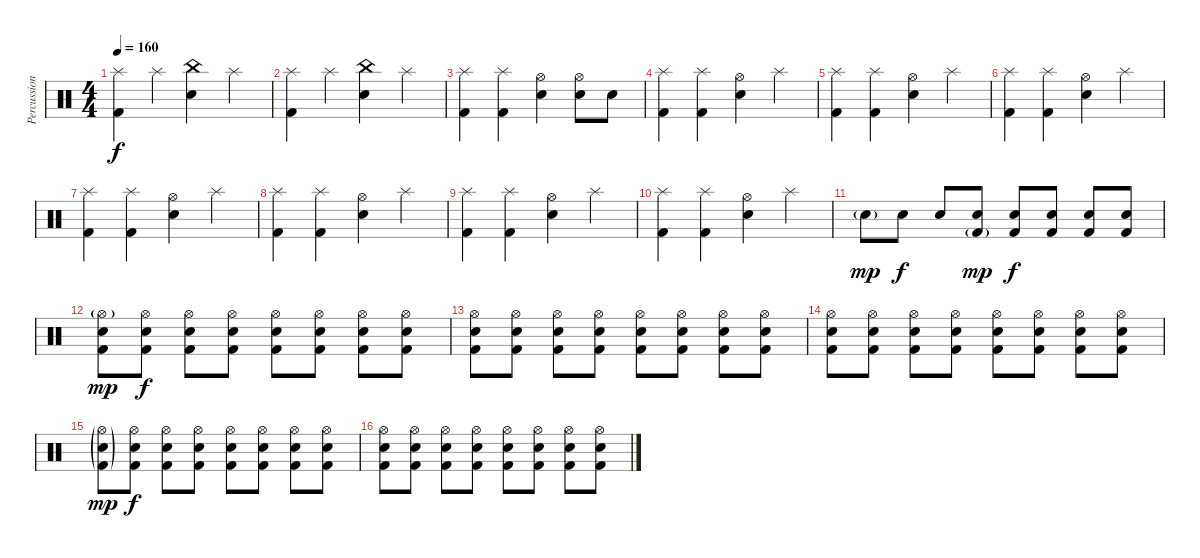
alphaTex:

\track ("Percussion" "Percussion") {instrument percussion}
\staff {score}
\articulation defaults
\ts (4 4)
\tempo 160
\clef neutral
\ks c
("Splash (hit)" "Kick (hit) 2").4{dy f} "Splash (hit)".4 ("China (hit)" "Electric Snare (hit)").4 "Splash (hit)".4 |
("Splash (hit)" "Kick (hit) 2").4 "Splash (hit)".4 ("China (hit)" "Electric Snare (hit)").4 "Splash (hit)".4 |
("Splash (hit)" "Kick (hit) 2").4 ("Splash (hit)" "Kick (hit) 2").4 ("Hi-Hat (open)" "Electric Snare (hit)").4 ("Hi-Hat (open)" "Electric Snare (hit)").8 "Electric Snare (hit)".8 |
("Splash (hit)" "Kick (hit) 2").4 ("Splash (hit)" "Kick (hit) 2").4 ("Hi-Hat (open)" "Electric Snare (hit)").4 "Splash (hit)".4 |
("Splash (hit)" "Kick (hit) 2").4 ("Splash (hit)" "Kick (hit) 2").4 ("Hi-Hat (open)" "Electric Snare (hit)").4 "Splash (hit)".4 |
("Splash (hit)" "Kick (hit) 2").4 ("Splash (hit)" "Kick (hit) 2").4 ("Hi-Hat (open)" "Electric Snare (hit)").4 "Splash (hit)".4 |
("Splash (hit)" "Kick (hit) 2").4 ("Splash (hit)" "Kick (hit) 2").4 ("Hi-Hat (open)" "Electric Snare (hit)").4 "Splash (hit)".4 |
("Splash (hit)" "Kick (hit) 2").4 ("Splash (hit)" "Kick (hit) 2").4 ("Hi-Hat (open)" "Electric Snare (hit)").4 "Splash (hit)".4 |
("Splash (hit)" "Kick (hit) 2").4 ("Splash (hit)" "Kick (hit) 2").4 ("Hi-Hat (open)" "Electric Snare (hit)").4 "Splash (hit)".4 |
("Splash (hit)" "Kick (hit) 2").4 ("Splash (hit)" "Kick (hit) 2").4 ("Hi-Hat (open)" "Electric Snare (hit)").4 "Splash (hit)".4 |
"Electric Snare (hit)"{g}.8{dy mp} "Electric Snare (hit)".8{dy f} "Electric Snare (hit)".8 ("Electric Snare (hit)" "Kick (hit) 2"{g}).8{dy mp} ("Electric Snare (hit)" "Kick (hit) 2").8{dy f} ("Electric Snare (hit)" "Kick (hit) 2").8 ("Electric Snare (hit)" "Kick (hit) 2").8 ("Electric Snare (hit)" "Kick (hit) 2").8 |
("Hi-Hat (open)"{g} "Electric Snare (hit)" "Kick (hit) 2").8{dy mp} ("Hi-Hat (open)" "Electric Snare (hit)" "Kick (hit) 2").8{dy f} ("Hi-Hat (open)" "Electric Snare (hit)" "Kick (hit) 2").8 ("Hi-Hat (open)" "Electric Snare (hit)" "Kick (hit) 2").8 ("Hi-Hat (open)" "Electric Snare (hit)" "Kick (hit) 2").8 ("Hi-Hat (open)" "Electric Snare (hit)" "Kick (hit) 2").8 ("Hi-Hat (open)" "Electric Snare (hit)" "Kick (hit) 2").8 ("Hi-Hat (open)" "Electric Snare (hit)" "Kick (hit) 2").8 |
("Hi-Hat (open)" "Electric Snare (hit)" "Kick (hit) 2").8 ("Hi-Hat (open)" "Electric Snare (hit)" "Kick (hit) 2").8 ("Hi-Hat (open)" "Electric Snare (hit)" "Kick (hit) 2").8 ("Hi-Hat (open)" "Electric Snare (hit)" "Kick (hit) 2").8 ("Hi-Hat (open)" "Electric Snare (hit)" "Kick (hit) 2").8 ("Hi-Hat (open)" "Electric Snare (hit)" "Kick (hit) 2").8 ("Hi-Hat (open)" "Electric Snare (hit)" "Kick (hit) 2").8 ("Hi-Hat (open)" "Electric Snare (hit)" "Kick (hit) 2").8 |
("Hi-Hat (open)" "Electric Snare (hit)" "Kick (hit) 2").8 ("Hi-Hat (open)" "Electric Snare (hit)" "Kick (hit) 2").8 ("Hi-Hat (open)" "Electric Snare (hit)" "Kick (hit) 2").8 ("Hi-Hat (open)" "Electric Snare (hit)" "Kick (hit) 2").8 ("Hi-Hat (open)" "Electric Snare (hit)" "Kick (hit) 2").8 ("Hi-Hat (open)" "Electric Snare (hit)" "Kick (hit) 2").8 ("Hi-Hat (open)" "Electric Snare (hit)" "Kick (hit) 2").8 ("Hi-Hat (open)" "Electric Snare (hit)" "Kick (hit) 2").8 |
("Hi-Hat (open)"{g} "Electric Snare (hit)"{g} "Kick (hit) 2"{g}).8{dy mp} ("Hi-Hat (open)" "Electric Snare (hit)" "Kick (hit) 2").8{dy f} ("Hi-Hat (open)" "Electric Snare (hit)" "Kick (hit) 2").8 ("Hi-Hat (open)" "Electric Snare (hit)" "Kick (hit) 2").8 ("Hi-Hat (open)" "Electric Snare (hit)" "Kick (hit) 2").8 ("Hi-Hat (open)" "Electric Snare (hit)" "Kick (hit) 2").8 ("Hi-Hat (open)" "Electric Snare (hit)" "Kick (hit) 2").8 ("Hi-Hat (open)" "Electric Snare (hit)" "Kick (hit) 2").8 |
("Hi-Hat (open)" "Electric Snare (hit)" "Kick (hit) 2").8 ("Hi-Hat (open)" "Electric Snare (hit)" "Kick (hit) 2").8 ("Hi-Hat (open)" "Electric Snare (hit)" "Kick (hit) 2").8 ("Hi-Hat (open)" "Electric Snare (hit)" "Kick (hit) 2").8 ("Hi-Hat (open)" "Electric Snare (hit)" "Kick (hit) 2").8 ("Hi-Hat (open)" "Electric Snare (hit)" "Kick (hit) 2").8 ("Hi-Hat (open)" "Electric Snare (hit)" "Kick (hit) 2").8 ("Hi-Hat (open)" "Electric Snare (hit)" "Kick (hit) 2").8
